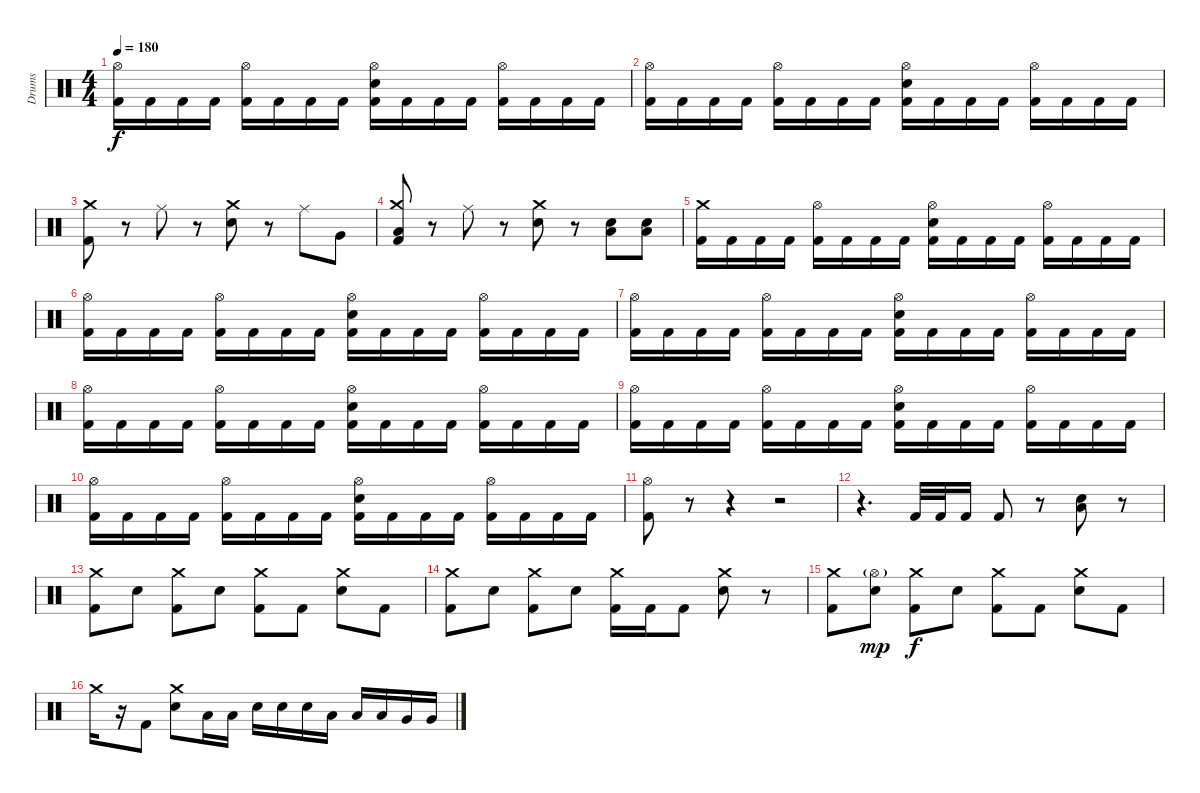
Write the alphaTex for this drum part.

\track ("Drums" "Drums") {instrument percussion}
\staff {score}
\articulation defaults
\ts (4 4)
\tempo 180
\clef neutral
\ks c
("Hi-Hat (open)" "Kick (hit) 2").16{dy f} "Kick (hit) 2".16 "Kick (hit) 2".16 "Kick (hit) 2".16 ("Hi-Hat (open)" "Kick (hit) 2").16 "Kick (hit) 2".16 "Kick (hit) 2".16 "Kick (hit) 2".16 ("Hi-Hat (open)" "Electric Snare (hit)" "Kick (hit) 2").16 "Kick (hit) 2".16 "Kick (hit) 2".16 "Kick (hit) 2".16 ("Hi-Hat (open)" "Kick (hit) 2").16 "Kick (hit) 2".16 "Kick (hit) 2".16 "Kick (hit) 2".16 |
("Hi-Hat (open)" "Kick (hit) 2").16 "Kick (hit) 2".16 "Kick (hit) 2".16 "Kick (hit) 2".16 ("Hi-Hat (open)" "Kick (hit) 2").16 "Kick (hit) 2".16 "Kick (hit) 2".16 "Kick (hit) 2".16 ("Hi-Hat (open)" "Electric Snare (hit)" "Kick (hit) 2").16 "Kick (hit) 2".16 "Kick (hit) 2".16 "Kick (hit) 2".16 ("Hi-Hat (open)" "Kick (hit) 2").16 "Kick (hit) 2".16 "Kick (hit) 2".16 "Kick (hit) 2".16 |
("Crash medium (hit)" "Kick (hit) 2").8 r.8 "Ride (middle)".8 r.8 ("Crash medium (hit)" "Electric Snare (hit)").8 r.8 "Ride (middle)".8 "Very Low Tom (hit)".8 |
("Crash medium (hit)" "Low Tom (hit)" "Kick (hit) 2").8 r.8 "Ride (middle)".8 r.8 ("Crash medium (hit)" "Electric Snare (hit)").8 r.8 ("Low Floor Tom (hit)" "Electric Snare (hit)").8{bd 60} ("Low Floor Tom (hit)" "Electric Snare (hit)").8{bd 60} |
("Crash medium (hit)" "Kick (hit) 2").16 "Kick (hit) 2".16 "Kick (hit) 2".16 "Kick (hit) 2".16 ("Hi-Hat (open)" "Kick (hit) 2").16 "Kick (hit) 2".16 "Kick (hit) 2".16 "Kick (hit) 2".16 ("Hi-Hat (open)" "Electric Snare (hit)" "Kick (hit) 2").16 "Kick (hit) 2".16 "Kick (hit) 2".16 "Kick (hit) 2".16 ("Hi-Hat (open)" "Kick (hit) 2").16 "Kick (hit) 2".16 "Kick (hit) 2".16 "Kick (hit) 2".16 |
("Hi-Hat (open)" "Kick (hit) 2").16 "Kick (hit) 2".16 "Kick (hit) 2".16 "Kick (hit) 2".16 ("Hi-Hat (open)" "Kick (hit) 2").16 "Kick (hit) 2".16 "Kick (hit) 2".16 "Kick (hit) 2".16 ("Hi-Hat (open)" "Electric Snare (hit)" "Kick (hit) 2").16 "Kick (hit) 2".16 "Kick (hit) 2".16 "Kick (hit) 2".16 ("Hi-Hat (open)" "Kick (hit) 2").16 "Kick (hit) 2".16 "Kick (hit) 2".16 "Kick (hit) 2".16 |
("Hi-Hat (open)" "Kick (hit) 2").16 "Kick (hit) 2".16 "Kick (hit) 2".16 "Kick (hit) 2".16 ("Hi-Hat (open)" "Kick (hit) 2").16 "Kick (hit) 2".16 "Kick (hit) 2".16 "Kick (hit) 2".16 ("Hi-Hat (open)" "Electric Snare (hit)" "Kick (hit) 2").16 "Kick (hit) 2".16 "Kick (hit) 2".16 "Kick (hit) 2".16 ("Hi-Hat (open)" "Kick (hit) 2").16 "Kick (hit) 2".16 "Kick (hit) 2".16 "Kick (hit) 2".16 |
("Hi-Hat (open)" "Kick (hit) 2").16 "Kick (hit) 2".16 "Kick (hit) 2".16 "Kick (hit) 2".16 ("Hi-Hat (open)" "Kick (hit) 2").16 "Kick (hit) 2".16 "Kick (hit) 2".16 "Kick (hit) 2".16 ("Hi-Hat (open)" "Electric Snare (hit)" "Kick (hit) 2").16 "Kick (hit) 2".16 "Kick (hit) 2".16 "Kick (hit) 2".16 ("Hi-Hat (open)" "Kick (hit) 2").16 "Kick (hit) 2".16 "Kick (hit) 2".16 "Kick (hit) 2".16 |
("Hi-Hat (open)" "Kick (hit) 2").16 "Kick (hit) 2".16 "Kick (hit) 2".16 "Kick (hit) 2".16 ("Hi-Hat (open)" "Kick (hit) 2").16 "Kick (hit) 2".16 "Kick (hit) 2".16 "Kick (hit) 2".16 ("Hi-Hat (open)" "Electric Snare (hit)" "Kick (hit) 2").16 "Kick (hit) 2".16 "Kick (hit) 2".16 "Kick (hit) 2".16 ("Hi-Hat (open)" "Kick (hit) 2").16 "Kick (hit) 2".16 "Kick (hit) 2".16 "Kick (hit) 2".16 |
("Hi-Hat (open)" "Kick (hit) 2").16 "Kick (hit) 2".16 "Kick (hit) 2".16 "Kick (hit) 2".16 ("Hi-Hat (open)" "Kick (hit) 2").16 "Kick (hit) 2".16 "Kick (hit) 2".16 "Kick (hit) 2".16 ("Hi-Hat (open)" "Electric Snare (hit)" "Kick (hit) 2").16 "Kick (hit) 2".16 "Kick (hit) 2".16 "Kick (hit) 2".16 ("Hi-Hat (open)" "Kick (hit) 2").16 "Kick (hit) 2".16 "Kick (hit) 2".16 "Kick (hit) 2".16 |
("Hi-Hat (open)" "Kick (hit) 2").8 r.8 r.4 r.2 |
r.4{d} "Kick (hit) 2".32 "Kick (hit) 2".32 "Kick (hit) 2".16 "Kick (hit) 2".8 r.8 ("Low Floor Tom (hit)" "Electric Snare (hit)").8{bd 60} r.8 |
("Crash medium (hit)" "Kick (hit) 2").8 "Electric Snare (hit)".8 ("Crash medium (hit)" "Kick (hit) 2").8 "Electric Snare (hit)".8 ("Crash medium (hit)" "Kick (hit) 2").8 "Kick (hit) 2".8 ("Crash medium (hit)" "Electric Snare (hit)").8 "Kick (hit) 2".8 |
("Crash medium (hit)" "Kick (hit) 2").8 "Electric Snare (hit)".8 ("Crash medium (hit)" "Kick (hit) 2").8 "Electric Snare (hit)".8 ("Crash medium (hit)" "Kick (hit) 2").16 "Kick (hit) 2".16 "Kick (hit) 2".8 ("Crash medium (hit)" "Electric Snare (hit)").8 r.8 |
("Crash medium (hit)" "Kick (hit) 2").8 ("Hi-Hat (open)"{g} "Electric Snare (hit)").8{dy mp} ("Crash medium (hit)" "Kick (hit) 2").8{dy f} "Electric Snare (hit)".8 ("Crash medium (hit)" "Kick (hit) 2").8 "Kick (hit) 2".8 ("Crash medium (hit)" "Electric Snare (hit)").8 "Kick (hit) 2".8 |
"Crash medium (hit)".16 r.16 "Kick (hit) 2".8 ("Crash medium (hit)" "Electric Snare (hit)").8 "Low Tom (hit)".16 "Low Tom (hit)".16 "Electric Snare (hit)".16 "Electric Snare (hit)".16 "Electric Snare (hit)".16 "Low Tom (hit)".16 "Low Tom (hit)".16 "Low Tom (hit)".16 "Very Low Tom (hit)".16 "Very Low Tom (hit)".16
